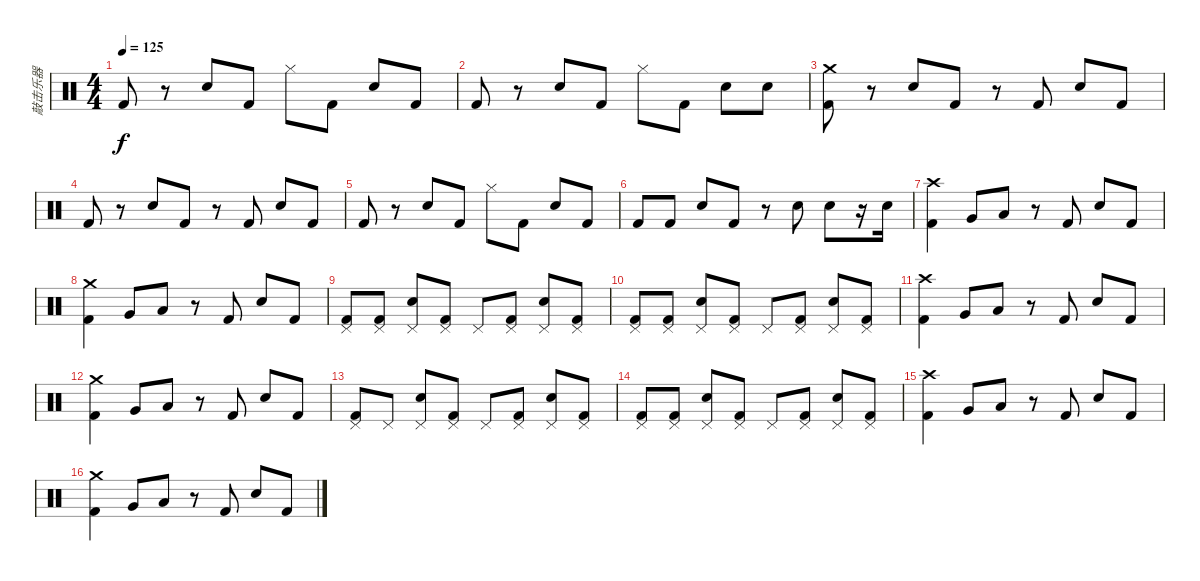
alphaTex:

\track ("敲击乐器" "敲击乐器") {instrument percussion}
\staff {score}
\articulation defaults
\ts (4 4)
\tempo 125
\clef neutral
\ks c "Kick (hit) 2".8{dy f}
r.8 "Electric Snare (hit)".8 "Kick (hit) 2".8 "Hi-Hat (closed)".8 "Kick (hit) 2".8 "Electric Snare (hit)".8 "Kick (hit) 2".8 |
"Kick (hit) 2".8 r.8 "Electric Snare (hit)".8 "Kick (hit) 2".8 "Hi-Hat (closed)".8 "Kick (hit) 2".8 "Electric Snare (hit)".8 "Electric Snare (hit)".8 |
("Kick (hit) 2" "Crash medium (hit)").8 r.8 "Electric Snare (hit)".8 "Kick (hit) 2".8 r.8 "Kick (hit) 2".8 "Electric Snare (hit)".8 "Kick (hit) 2".8 |
"Kick (hit) 2".8 r.8 "Electric Snare (hit)".8 "Kick (hit) 2".8 r.8 "Kick (hit) 2".8 "Electric Snare (hit)".8 "Kick (hit) 2".8 |
"Kick (hit) 2".8 r.8 "Electric Snare (hit)".8 "Kick (hit) 2".8 "Hi-Hat (closed)".8 "Kick (hit) 2".8 "Electric Snare (hit)".8 "Kick (hit) 2".8 |
"Kick (hit) 2".8 "Kick (hit) 2".8 "Electric Snare (hit)".8 "Kick (hit) 2".8 r.8 "Electric Snare (hit)".8 "Electric Snare (hit)".8 r.16 "Electric Snare (hit)".16 |
("Kick (hit) 2" "Crash high (hit)").4 "Very Low Tom (hit)".8 "Low Floor Tom (hit)".8 r.8 "Kick (hit) 2".8 "Electric Snare (hit)".8 "Kick (hit) 2".8 |
("Kick (hit) 2" "Crash medium (hit)").4 "Very Low Tom (hit)".8 "Low Floor Tom (hit)".8 r.8 "Kick (hit) 2".8 "Electric Snare (hit)".8 "Kick (hit) 2".8 |
("Kick (hit) 2" "Pedal Hi-Hat (hit)").8 ("Kick (hit) 2" "Pedal Hi-Hat (hit)").8 ("Electric Snare (hit)" "Pedal Hi-Hat (hit)").8 ("Kick (hit) 2" "Pedal Hi-Hat (hit)").8 "Pedal Hi-Hat (hit)".8 ("Kick (hit) 2" "Pedal Hi-Hat (hit)").8 ("Electric Snare (hit)" "Pedal Hi-Hat (hit)").8 ("Kick (hit) 2" "Pedal Hi-Hat (hit)").8 |
("Kick (hit) 2" "Pedal Hi-Hat (hit)").8 ("Kick (hit) 2" "Pedal Hi-Hat (hit)").8 ("Electric Snare (hit)" "Pedal Hi-Hat (hit)").8 ("Kick (hit) 2" "Pedal Hi-Hat (hit)").8 "Pedal Hi-Hat (hit)".8 ("Kick (hit) 2" "Pedal Hi-Hat (hit)").8 ("Electric Snare (hit)" "Pedal Hi-Hat (hit)").8 ("Kick (hit) 2" "Pedal Hi-Hat (hit)").8 |
("Kick (hit) 2" "Crash high (hit)").4 "Very Low Tom (hit)".8 "Low Floor Tom (hit)".8 r.8 "Kick (hit) 2".8 "Electric Snare (hit)".8 "Kick (hit) 2".8 |
("Kick (hit) 2" "Crash medium (hit)").4 "Very Low Tom (hit)".8 "Low Floor Tom (hit)".8 r.8 "Kick (hit) 2".8 "Electric Snare (hit)".8 "Kick (hit) 2".8 |
("Kick (hit) 2" "Pedal Hi-Hat (hit)").8 "Pedal Hi-Hat (hit)".8 ("Electric Snare (hit)" "Pedal Hi-Hat (hit)").8 ("Kick (hit) 2" "Pedal Hi-Hat (hit)").8 "Pedal Hi-Hat (hit)".8 ("Kick (hit) 2" "Pedal Hi-Hat (hit)").8 ("Electric Snare (hit)" "Pedal Hi-Hat (hit)").8 ("Kick (hit) 2" "Pedal Hi-Hat (hit)").8 |
("Kick (hit) 2" "Pedal Hi-Hat (hit)").8 ("Kick (hit) 2" "Pedal Hi-Hat (hit)").8 ("Electric Snare (hit)" "Pedal Hi-Hat (hit)").8 ("Kick (hit) 2" "Pedal Hi-Hat (hit)").8 "Pedal Hi-Hat (hit)".8 ("Kick (hit) 2" "Pedal Hi-Hat (hit)").8 ("Electric Snare (hit)" "Pedal Hi-Hat (hit)").8 ("Kick (hit) 2" "Pedal Hi-Hat (hit)").8 |
("Kick (hit) 2" "Crash high (hit)").4 "Very Low Tom (hit)".8 "Low Floor Tom (hit)".8 r.8 "Kick (hit) 2".8 "Electric Snare (hit)".8 "Kick (hit) 2".8 |
("Kick (hit) 2" "Crash medium (hit)").4 "Very Low Tom (hit)".8 "Low Floor Tom (hit)".8 r.8 "Kick (hit) 2".8 "Electric Snare (hit)".8 "Kick (hit) 2".8
